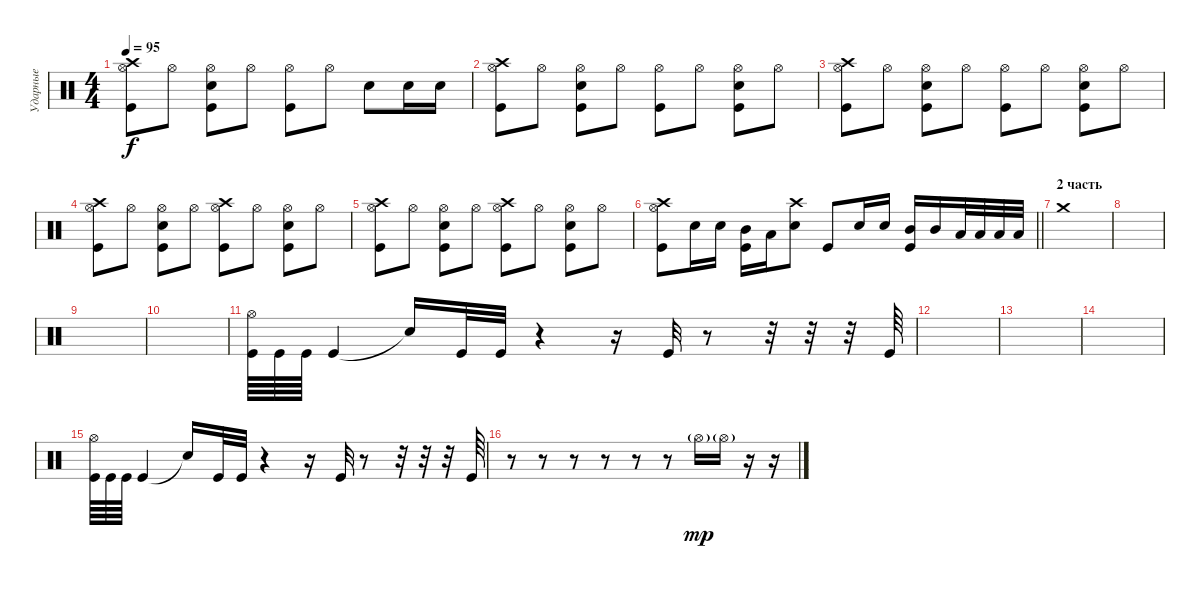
\track ("Ударные" "Ударные") {instrument percussion}
\staff {score}
\articulation defaults
\ts (4 4)
\tempo 95
\clef neutral
\ks c
("Crash high (hit)" "Hi-Hat (open)" "Kick (hit)").8{dy f} "Hi-Hat (open)".8 ("Electric Snare (hit)" "Hi-Hat (open)" "Kick (hit)").8 "Hi-Hat (open)".8 ("Hi-Hat (open)" "Kick (hit)").8 "Hi-Hat (open)".8 "Electric Snare (hit)".8 "Electric Snare (hit)".16 "Electric Snare (hit)".16 |
("Crash high (hit)" "Hi-Hat (open)" "Kick (hit)").8 "Hi-Hat (open)".8 ("Electric Snare (hit)" "Hi-Hat (open)" "Kick (hit)").8 "Hi-Hat (open)".8 ("Hi-Hat (open)" "Kick (hit)").8 "Hi-Hat (open)".8 ("Electric Snare (hit)" "Hi-Hat (open)" "Kick (hit)").8 "Hi-Hat (open)".8 |
("Crash high (hit)" "Hi-Hat (open)" "Kick (hit)").8 "Hi-Hat (open)".8 ("Electric Snare (hit)" "Hi-Hat (open)" "Kick (hit)").8 "Hi-Hat (open)".8 ("Hi-Hat (open)" "Kick (hit)").8 "Hi-Hat (open)".8 ("Electric Snare (hit)" "Hi-Hat (open)" "Kick (hit)").8 "Hi-Hat (open)".8 |
("Crash high (hit)" "Hi-Hat (open)" "Kick (hit)").8 "Hi-Hat (open)".8 ("Electric Snare (hit)" "Hi-Hat (open)" "Kick (hit)").8 "Hi-Hat (open)".8 ("Crash high (hit)" "Hi-Hat (open)" "Kick (hit)").8 "Hi-Hat (open)".8 ("Electric Snare (hit)" "Hi-Hat (open)" "Kick (hit)").8 "Hi-Hat (open)".8 |
("Crash high (hit)" "Hi-Hat (open)" "Kick (hit)").8 "Hi-Hat (open)".8 ("Electric Snare (hit)" "Hi-Hat (open)" "Kick (hit)").8 "Hi-Hat (open)".8 ("Crash high (hit)" "Hi-Hat (open)" "Kick (hit)").8 "Hi-Hat (open)".8 ("Electric Snare (hit)" "Hi-Hat (open)" "Kick (hit)").8 "Hi-Hat (open)".8 |
\barLineRight lightlight
("Crash high (hit)" "Hi-Hat (open)" "Kick (hit)").8 "Electric Snare (hit)".16 "Electric Snare (hit)".16 ("Mid Tom (hit)" "Kick (hit)").16 "Low Tom (hit)".16 ("Crash high (hit)" "Snare (hit) 2").8 "Kick (hit)".8 "Electric Snare (hit)".16 "Electric Snare (hit)".16 ("Mid Tom (hit)" "Kick (hit)").16 "Mid Tom (hit)".16 "Low Tom (hit)".32 "Low Tom (hit)".32 "Low Tom (hit)".32 "Low Tom (hit)".32 |
\section ("" "2 часть")
"Crash medium (hit)".1 |
|
|
|
("Kick (hit)" "Hi-Hat (open)").64{volume 5} "Kick (hit)".64 "Kick (hit)".64 "Kick (hit)".4 "Snare (hit)"{t}.16 "Kick (hit)".32 "Kick (hit)".32 r.4 r.16 "Kick (hit)".32 r.8 r.32 r.32 r.32 "Kick (hit)".64 |
|
|
|
("Kick (hit)" "Hi-Hat (open)").64 "Kick (hit)".64 "Kick (hit)".64 "Kick (hit)".4 "Snare (hit)"{t}.16 "Kick (hit)".32 "Kick (hit)".32 r.4 r.16 "Kick (hit)".32 r.8 r.32 r.32 r.32 "Kick (hit)".64 |
r.8 r.8 r.8 r.8 r.8 r.8 "Hi-Hat (open)"{g}.16{dy mp} "Hi-Hat (open)"{g}.16 r.16 r.16
